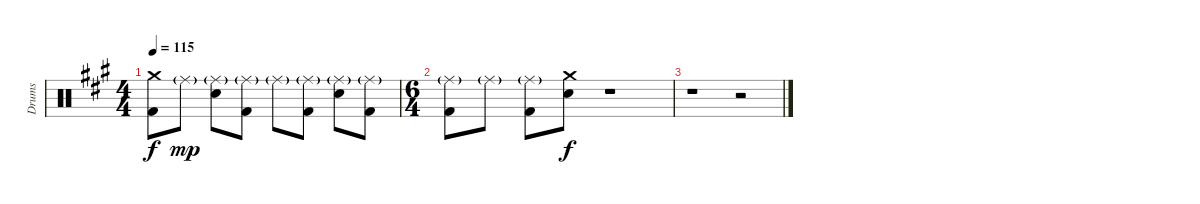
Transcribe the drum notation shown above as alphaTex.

\track ("Drums" "Drums") {instrument percussion}
\staff {score}
\articulation defaults
\ts (4 4)
\tempo 115
\clef neutral
\ks a
("Crash medium (hit)" "Kick (hit) 2").8{dy f} "Ride (middle)"{g}.8{dy mp} ("Ride (middle)"{g} "Snare (hit) 2").8 ("Ride (middle)"{g} "Kick (hit) 2").8 "Ride (middle)"{g}.8 ("Ride (middle)"{g} "Kick (hit) 2").8 ("Ride (middle)"{g} "Snare (hit) 2").8 ("Ride (middle)"{g} "Kick (hit) 2").8 |
\ts (6 4)
("Ride (middle)"{g} "Kick (hit) 2").8 "Ride (middle)"{g}.8 ("Ride (middle)"{g} "Kick (hit) 2").8 ("Crash medium (hit)" "Snare (hit) 2").8{dy f} r.1 |
r.1 r.2
